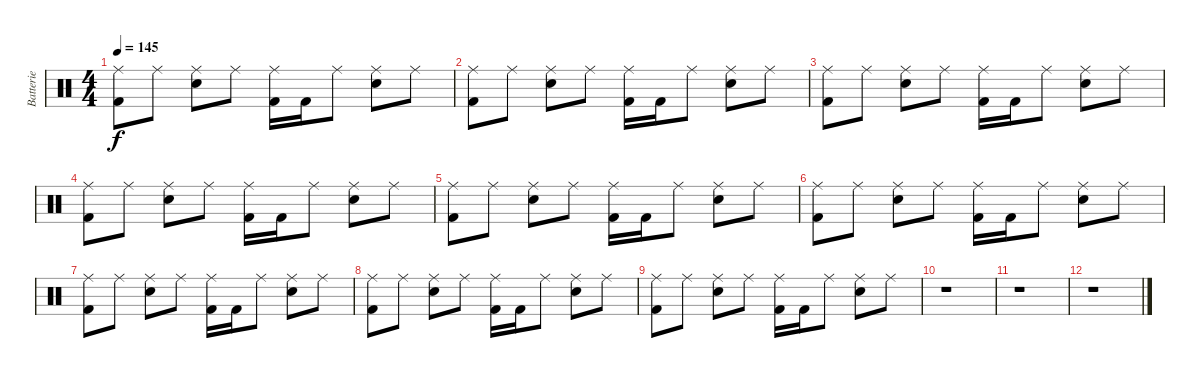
\track ("Batterie" "Batterie") {instrument percussion}
\staff {score}
\articulation defaults
\ts (4 4)
\tempo 145
\clef neutral
\ks c
("Ride (middle)" "Kick (hit) 2").8{dy f} "Ride (middle)".8 ("Ride (middle)" "Snare (hit) 2").8 "Ride (middle)".8 ("Ride (middle)" "Kick (hit) 2").16 "Kick (hit) 2".16 "Ride (middle)".8 ("Ride (middle)" "Snare (hit) 2").8 "Ride (middle)".8 |
("Ride (middle)" "Kick (hit) 2").8 "Ride (middle)".8 ("Ride (middle)" "Snare (hit) 2").8 "Ride (middle)".8 ("Ride (middle)" "Kick (hit) 2").16 "Kick (hit) 2".16 "Ride (middle)".8 ("Ride (middle)" "Snare (hit) 2").8 "Ride (middle)".8 |
("Ride (middle)" "Kick (hit) 2").8 "Ride (middle)".8 ("Ride (middle)" "Snare (hit) 2").8 "Ride (middle)".8 ("Ride (middle)" "Kick (hit) 2").16 "Kick (hit) 2".16 "Ride (middle)".8 ("Ride (middle)" "Snare (hit) 2").8 "Ride (middle)".8 |
("Ride (middle)" "Kick (hit) 2").8 "Ride (middle)".8 ("Ride (middle)" "Snare (hit) 2").8 "Ride (middle)".8 ("Ride (middle)" "Kick (hit) 2").16 "Kick (hit) 2".16 "Ride (middle)".8 ("Ride (middle)" "Snare (hit) 2").8 "Ride (middle)".8 |
("Ride (middle)" "Kick (hit) 2").8 "Ride (middle)".8 ("Ride (middle)" "Snare (hit) 2").8 "Ride (middle)".8 ("Ride (middle)" "Kick (hit) 2").16 "Kick (hit) 2".16 "Ride (middle)".8 ("Ride (middle)" "Snare (hit) 2").8 "Ride (middle)".8 |
("Ride (middle)" "Kick (hit) 2").8 "Ride (middle)".8 ("Ride (middle)" "Snare (hit) 2").8 "Ride (middle)".8 ("Ride (middle)" "Kick (hit) 2").16 "Kick (hit) 2".16 "Ride (middle)".8 ("Ride (middle)" "Snare (hit) 2").8 "Ride (middle)".8 |
("Ride (middle)" "Kick (hit) 2").8 "Ride (middle)".8 ("Ride (middle)" "Snare (hit) 2").8 "Ride (middle)".8 ("Ride (middle)" "Kick (hit) 2").16 "Kick (hit) 2".16 "Ride (middle)".8 ("Ride (middle)" "Snare (hit) 2").8 "Ride (middle)".8 |
("Ride (middle)" "Kick (hit) 2").8 "Ride (middle)".8 ("Ride (middle)" "Snare (hit) 2").8 "Ride (middle)".8 ("Ride (middle)" "Kick (hit) 2").16 "Kick (hit) 2".16 "Ride (middle)".8 ("Ride (middle)" "Snare (hit) 2").8 "Ride (middle)".8 |
("Ride (middle)" "Kick (hit) 2").8 "Ride (middle)".8 ("Ride (middle)" "Snare (hit) 2").8 "Ride (middle)".8 ("Ride (middle)" "Kick (hit) 2").16 "Kick (hit) 2".16 "Ride (middle)".8 ("Ride (middle)" "Snare (hit) 2").8 "Ride (middle)".8 |
r.1 |
r.1 |
r.1
